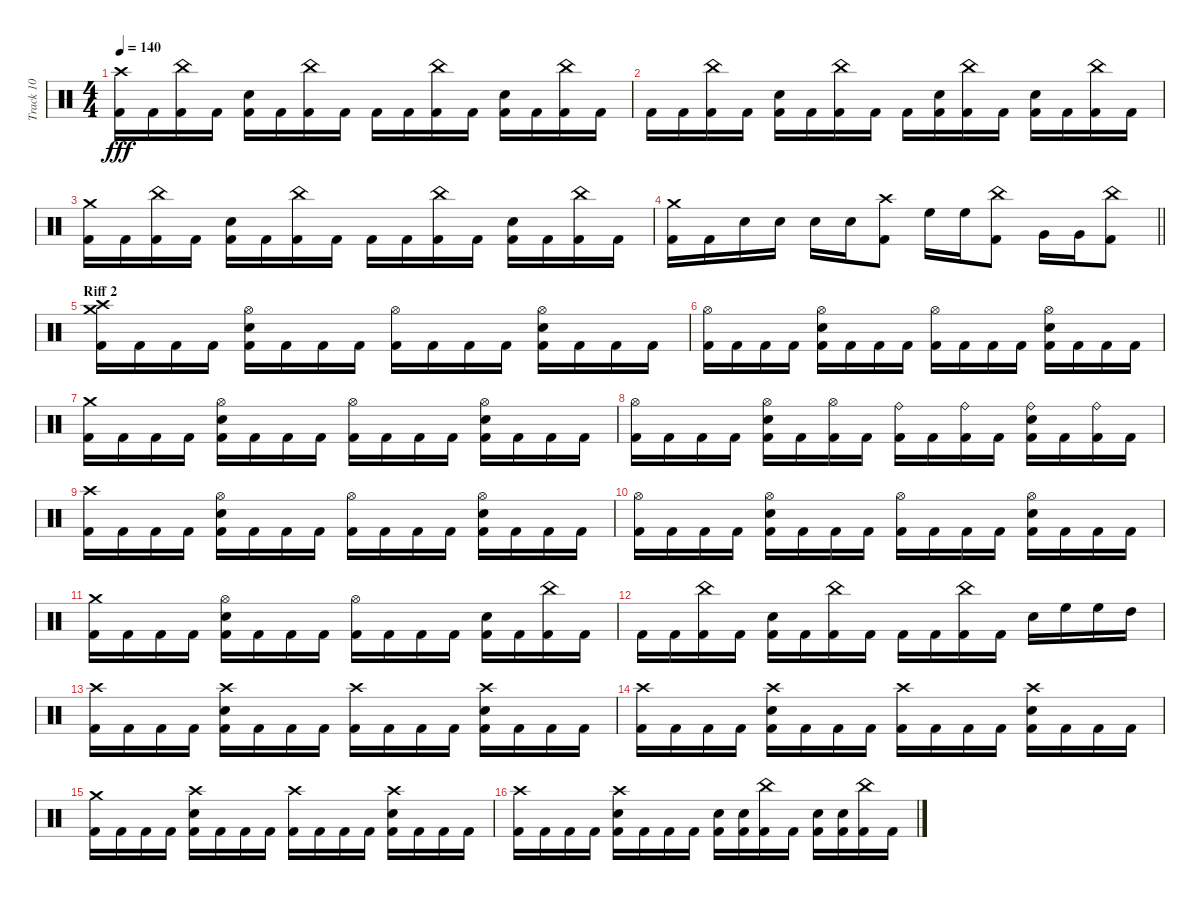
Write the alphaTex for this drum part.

\track ("Track 10" "Track 10") {instrument percussion}
\staff {score}
\articulation defaults
\ts (4 4)
\tempo 140
\clef neutral
\ks c
("Crash high (hit)" "Kick (hit) 2").16{dy fff} "Kick (hit) 2".16 ("China (hit)" "Kick (hit) 2").16 "Kick (hit) 2".16 ("Kick (hit) 2" "Snare (hit) 2").16 "Kick (hit) 2".16 ("Kick (hit) 2" "China (hit)").16 "Kick (hit) 2".16 "Kick (hit) 2".16 "Kick (hit) 2".16 ("Kick (hit) 2" "China (hit)").16 "Kick (hit) 2".16 ("Kick (hit) 2" "Snare (hit) 2").16 "Kick (hit) 2".16 ("China (hit)" "Kick (hit) 2").16 "Kick (hit) 2".16 |
"Kick (hit) 2".16 "Kick (hit) 2".16 ("China (hit)" "Kick (hit) 2").16 "Kick (hit) 2".16 ("Kick (hit) 2" "Snare (hit) 2").16 "Kick (hit) 2".16 ("Kick (hit) 2" "China (hit)").16 "Kick (hit) 2".16 "Kick (hit) 2".16 ("Snare (hit) 2" "Kick (hit) 2").16 ("Kick (hit) 2" "China (hit)").16 "Kick (hit) 2".16 ("Kick (hit) 2" "Snare (hit) 2").16 "Kick (hit) 2".16 ("China (hit)" "Kick (hit) 2").16 "Kick (hit) 2".16 |
("Crash medium (hit)" "Kick (hit) 2").16 "Kick (hit) 2".16 ("Kick (hit) 2" "China (hit)").16 "Kick (hit) 2".16 ("Kick (hit) 2" "Snare (hit) 2").16 "Kick (hit) 2".16 ("China (hit)" "Kick (hit) 2").16 "Kick (hit) 2".16 "Kick (hit) 2".16 "Kick (hit) 2".16 ("China (hit)" "Kick (hit) 2").16 "Kick (hit) 2".16 ("Kick (hit) 2" "Snare (hit) 2").16 "Kick (hit) 2".16 ("Kick (hit) 2" "China (hit)").16 "Kick (hit) 2".16 |
\barLineRight lightlight
("Kick (hit) 2" "Crash medium (hit)").16 "Kick (hit) 2".16 "Snare (hit) 2".16 "Snare (hit) 2".16 "Snare (hit) 2".16 "Snare (hit) 2".16 ("Kick (hit) 2" "Crash high (hit)").8 "High Floor Tom (hit)".16 "High Floor Tom (hit)".16 ("China (hit)" "Kick (hit) 2").8 "Very Low Tom (hit)".16 "Very Low Tom (hit)".16 ("Kick (hit) 2" "China (hit)").8 |
\section ("" "Riff 2")
("Crash medium (hit)" "Crash high (hit)" "Kick (hit) 2").16 "Kick (hit) 2".16 "Kick (hit) 2".16 "Kick (hit) 2".16 ("Kick (hit) 2" "Hi-Hat (open)" "Snare (hit) 2").16 "Kick (hit) 2".16 "Kick (hit) 2".16 "Kick (hit) 2".16 ("Hi-Hat (open)" "Kick (hit) 2").16 "Kick (hit) 2".16 "Kick (hit) 2".16 "Kick (hit) 2".16 ("Hi-Hat (open)" "Snare (hit) 2" "Kick (hit) 2").16 "Kick (hit) 2".16 "Kick (hit) 2".16 "Kick (hit) 2".16 |
("Hi-Hat (open)" "Kick (hit) 2").16 "Kick (hit) 2".16 "Kick (hit) 2".16 "Kick (hit) 2".16 ("Hi-Hat (open)" "Kick (hit) 2" "Snare (hit) 2").16 "Kick (hit) 2".16 "Kick (hit) 2".16 "Kick (hit) 2".16 ("Kick (hit) 2" "Hi-Hat (open)").16 "Kick (hit) 2".16 "Kick (hit) 2".16 "Kick (hit) 2".16 ("Snare (hit) 2" "Hi-Hat (open)" "Kick (hit) 2").16 "Kick (hit) 2".16 "Kick (hit) 2".16 "Kick (hit) 2".16 |
("Kick (hit) 2" "Crash medium (hit)").16 "Kick (hit) 2".16 "Kick (hit) 2".16 "Kick (hit) 2".16 ("Snare (hit) 2" "Kick (hit) 2" "Hi-Hat (open)").16 "Kick (hit) 2".16 "Kick (hit) 2".16 "Kick (hit) 2".16 ("Hi-Hat (open)" "Kick (hit) 2").16 "Kick (hit) 2".16 "Kick (hit) 2".16 "Kick (hit) 2".16 ("Kick (hit) 2" "Snare (hit) 2" "Hi-Hat (open)").16 "Kick (hit) 2".16 "Kick (hit) 2".16 "Kick (hit) 2".16 |
("Kick (hit) 2" "Hi-Hat (open)").16 "Kick (hit) 2".16 "Kick (hit) 2".16 "Kick (hit) 2".16 ("Kick (hit) 2" "Snare (hit) 2" "Hi-Hat (open)").16 "Kick (hit) 2".16 ("Kick (hit) 2" "Hi-Hat (open)").16 "Kick (hit) 2".16 ("Kick (hit) 2" "Ride (bell)").16 "Kick (hit) 2".16 ("Ride (bell)" "Kick (hit) 2").16 "Kick (hit) 2".16 ("Kick (hit) 2" "Ride (bell)" "Snare (hit) 2").16 "Kick (hit) 2".16 ("Ride (bell)" "Kick (hit) 2").16 "Kick (hit) 2".16 |
("Crash high (hit)" "Kick (hit) 2").16 "Kick (hit) 2".16 "Kick (hit) 2".16 "Kick (hit) 2".16 ("Snare (hit) 2" "Kick (hit) 2" "Hi-Hat (open)").16 "Kick (hit) 2".16 "Kick (hit) 2".16 "Kick (hit) 2".16 ("Hi-Hat (open)" "Kick (hit) 2").16 "Kick (hit) 2".16 "Kick (hit) 2".16 "Kick (hit) 2".16 ("Kick (hit) 2" "Snare (hit) 2" "Hi-Hat (open)").16 "Kick (hit) 2".16 "Kick (hit) 2".16 "Kick (hit) 2".16 |
("Kick (hit) 2" "Hi-Hat (open)").16 "Kick (hit) 2".16 "Kick (hit) 2".16 "Kick (hit) 2".16 ("Snare (hit) 2" "Hi-Hat (open)" "Kick (hit) 2").16 "Kick (hit) 2".16 "Kick (hit) 2".16 "Kick (hit) 2".16 ("Kick (hit) 2" "Hi-Hat (open)").16 "Kick (hit) 2".16 "Kick (hit) 2".16 "Kick (hit) 2".16 ("Hi-Hat (open)" "Snare (hit) 2" "Kick (hit) 2").16 "Kick (hit) 2".16 "Kick (hit) 2".16 "Kick (hit) 2".16 |
("Kick (hit) 2" "Crash medium (hit)").16 "Kick (hit) 2".16 "Kick (hit) 2".16 "Kick (hit) 2".16 ("Snare (hit) 2" "Kick (hit) 2" "Hi-Hat (open)").16 "Kick (hit) 2".16 "Kick (hit) 2".16 "Kick (hit) 2".16 ("Hi-Hat (open)" "Kick (hit) 2").16 "Kick (hit) 2".16 "Kick (hit) 2".16 "Kick (hit) 2".16 ("Snare (hit) 2" "Kick (hit) 2").16 "Kick (hit) 2".16 ("China (hit)" "Kick (hit) 2").16 "Kick (hit) 2".16 |
"Kick (hit) 2".16 "Kick (hit) 2".16 ("Kick (hit) 2" "China (hit)").16 "Kick (hit) 2".16 ("Kick (hit) 2" "Snare (hit) 2").16 "Kick (hit) 2".16 ("China (hit)" "Kick (hit) 2").16 "Kick (hit) 2".16 "Kick (hit) 2".16 "Kick (hit) 2".16 ("Kick (hit) 2" "China (hit)").16 "Kick (hit) 2".16 "Snare (hit) 2".16 "High Floor Tom (hit)".16 "High Floor Tom (hit)".16 "High Tom (hit)".16 |
("Crash high (hit)" "Kick (hit) 2").16 "Kick (hit) 2".16 "Kick (hit) 2".16 "Kick (hit) 2".16 ("Crash high (hit)" "Snare (hit) 2" "Kick (hit) 2").16 "Kick (hit) 2".16 "Kick (hit) 2".16 "Kick (hit) 2".16 ("Kick (hit) 2" "Crash high (hit)").16 "Kick (hit) 2".16 "Kick (hit) 2".16 "Kick (hit) 2".16 ("Snare (hit) 2" "Crash high (hit)" "Kick (hit) 2").16 "Kick (hit) 2".16 "Kick (hit) 2".16 "Kick (hit) 2".16 |
("Crash high (hit)" "Kick (hit) 2").16 "Kick (hit) 2".16 "Kick (hit) 2".16 "Kick (hit) 2".16 ("Crash high (hit)" "Kick (hit) 2" "Snare (hit) 2").16 "Kick (hit) 2".16 "Kick (hit) 2".16 "Kick (hit) 2".16 ("Kick (hit) 2" "Crash high (hit)").16 "Kick (hit) 2".16 "Kick (hit) 2".16 "Kick (hit) 2".16 ("Kick (hit) 2" "Crash high (hit)" "Snare (hit) 2").16 "Kick (hit) 2".16 "Kick (hit) 2".16 "Kick (hit) 2".16 |
("Kick (hit) 2" "Crash medium (hit)").16 "Kick (hit) 2".16 "Kick (hit) 2".16 "Kick (hit) 2".16 ("Crash high (hit)" "Kick (hit) 2" "Snare (hit) 2").16 "Kick (hit) 2".16 "Kick (hit) 2".16 "Kick (hit) 2".16 ("Kick (hit) 2" "Crash high (hit)").16 "Kick (hit) 2".16 "Kick (hit) 2".16 "Kick (hit) 2".16 ("Snare (hit) 2" "Crash high (hit)" "Kick (hit) 2").16 "Kick (hit) 2".16 "Kick (hit) 2".16 "Kick (hit) 2".16 |
("Kick (hit) 2" "Crash high (hit)").16 "Kick (hit) 2".16 "Kick (hit) 2".16 "Kick (hit) 2".16 ("Kick (hit) 2" "Crash high (hit)" "Snare (hit) 2").16 "Kick (hit) 2".16 "Kick (hit) 2".16 "Kick (hit) 2".16 ("Snare (hit) 2" "Kick (hit) 2").16 ("Kick (hit) 2" "Snare (hit) 2").16 ("China (hit)" "Kick (hit) 2").16 "Kick (hit) 2".16 ("Snare (hit) 2" "Kick (hit) 2").16 ("Kick (hit) 2" "Snare (hit) 2").16 ("China (hit)" "Kick (hit) 2").16 "Kick (hit) 2".16
